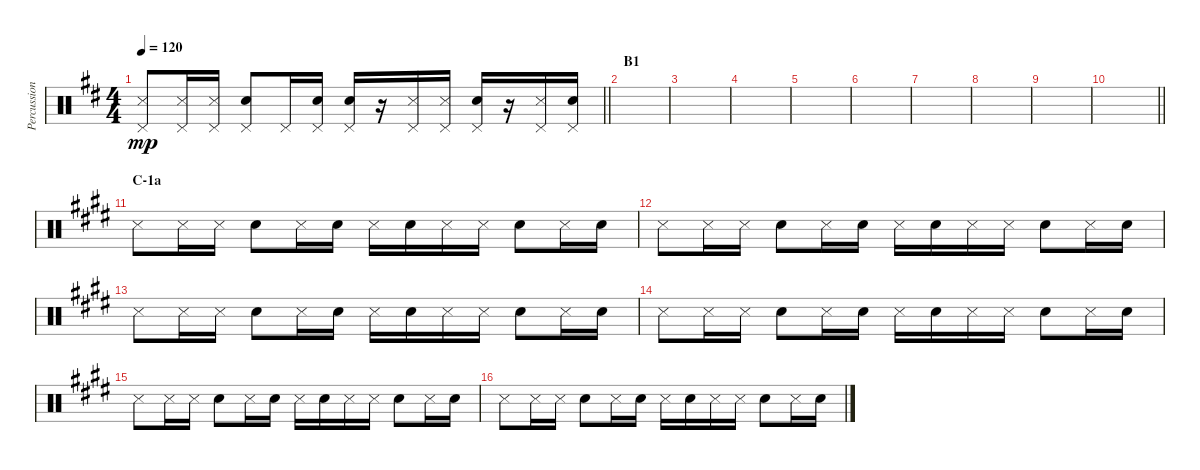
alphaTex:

\track ("Percussion (Tainaka Ritsu)" "Percussion") {instrument percussion}
\staff {score}
\articulation defaults
\ts (4 4)
\tempo 120
\clef neutral
\barLineRight lightlight
\ks d
("Snare (side stick) 3" "Pedal Hi-Hat (hit)").8{dy mp} ("Snare (side stick) 3" "Pedal Hi-Hat (hit)").16 ("Snare (side stick) 3" "Pedal Hi-Hat (hit)").16 ("Snare (hit) 2" "Pedal Hi-Hat (hit)").8 "Pedal Hi-Hat (hit)".16 ("Snare (hit) 2" "Pedal Hi-Hat (hit)").16 ("Snare (hit) 2" "Pedal Hi-Hat (hit)").16 r.16 ("Snare (side stick) 3" "Pedal Hi-Hat (hit)").16 ("Snare (side stick) 3" "Pedal Hi-Hat (hit)").16 ("Snare (hit) 2" "Pedal Hi-Hat (hit)").16 r.16 ("Snare (side stick) 3" "Pedal Hi-Hat (hit)").16 ("Snare (hit) 2" "Pedal Hi-Hat (hit)").16 |
\section ("" "B1")
|
|
|
|
|
|
|
|
\barLineRight lightlight
|
\section ("" "C-1a")
\ks e "Snare (side stick) 3".8 "Snare (side stick) 3".16 "Snare (side stick) 3".16 "Snare (hit) 2".8 "Snare (side stick) 3".16 "Snare (hit) 2".16 "Snare (side stick) 3".16 "Snare (hit) 2".16 "Snare (side stick) 3".16 "Snare (side stick) 3".16 "Snare (hit) 2".8 "Snare (side stick) 3".16 "Snare (hit) 2".16
|
"Snare (side stick) 3".8 "Snare (side stick) 3".16 "Snare (side stick) 3".16 "Snare (hit) 2".8 "Snare (side stick) 3".16 "Snare (hit) 2".16 "Snare (side stick) 3".16 "Snare (hit) 2".16 "Snare (side stick) 3".16 "Snare (side stick) 3".16 "Snare (hit) 2".8 "Snare (side stick) 3".16 "Snare (hit) 2".16 |
"Snare (side stick) 3".8 "Snare (side stick) 3".16 "Snare (side stick) 3".16 "Snare (hit) 2".8 "Snare (side stick) 3".16 "Snare (hit) 2".16 "Snare (side stick) 3".16 "Snare (hit) 2".16 "Snare (side stick) 3".16 "Snare (side stick) 3".16 "Snare (hit) 2".8 "Snare (side stick) 3".16 "Snare (hit) 2".16 |
"Snare (side stick) 3".8 "Snare (side stick) 3".16 "Snare (side stick) 3".16 "Snare (hit) 2".8 "Snare (side stick) 3".16 "Snare (hit) 2".16 "Snare (side stick) 3".16 "Snare (hit) 2".16 "Snare (side stick) 3".16 "Snare (side stick) 3".16 "Snare (hit) 2".8 "Snare (side stick) 3".16 "Snare (hit) 2".16 |
"Snare (side stick) 3".8 "Snare (side stick) 3".16 "Snare (side stick) 3".16 "Snare (hit) 2".8 "Snare (side stick) 3".16 "Snare (hit) 2".16 "Snare (side stick) 3".16 "Snare (hit) 2".16 "Snare (side stick) 3".16 "Snare (side stick) 3".16 "Snare (hit) 2".8 "Snare (side stick) 3".16 "Snare (hit) 2".16 |
"Snare (side stick) 3".8 "Snare (side stick) 3".16 "Snare (side stick) 3".16 "Snare (hit) 2".8 "Snare (side stick) 3".16 "Snare (hit) 2".16 "Snare (side stick) 3".16 "Snare (hit) 2".16 "Snare (side stick) 3".16 "Snare (side stick) 3".16 "Snare (hit) 2".8 "Snare (side stick) 3".16 "Snare (hit) 2".16
